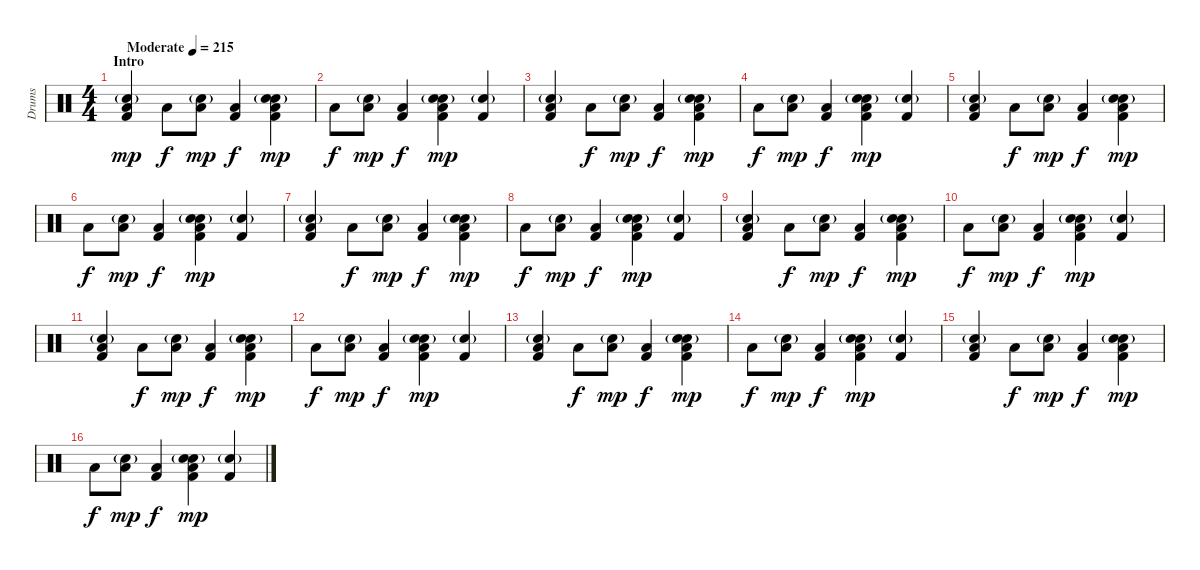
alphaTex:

\track ("Drums" "Drums") {instrument percussion}
\staff {score}
\articulation defaults
\ts (4 4)
\section ("" "Intro")
\tempo (215 "Moderate")
\clef neutral
\ks c
("Electric Snare (hit)"{g} "Low Floor Tom (hit)" "Kick (hit) 2").4{dy mp} "Low Floor Tom (hit)".8{dy f} ("Electric Snare (hit)"{g} "Low Floor Tom (hit)").8{dy mp} ("Low Floor Tom (hit)" "Kick (hit) 2").4{dy f} ("Electric Snare (hit)" "Kick (hit) 2" "Low Floor Tom (hit)" "Snare (hit) 2"{g}).4{dy mp} |
"Low Floor Tom (hit)".8{dy f} ("Electric Snare (hit)"{g} "Low Floor Tom (hit)").8{dy mp} ("Low Floor Tom (hit)" "Kick (hit) 2").4{dy f} ("Snare (hit) 2"{g} "Electric Snare (hit)" "Kick (hit) 2" "Low Floor Tom (hit)").4{dy mp} ("Electric Snare (hit)"{g} "Kick (hit) 2").4 |
("Electric Snare (hit)"{g} "Low Floor Tom (hit)" "Kick (hit) 2").4 "Low Floor Tom (hit)".8{dy f} ("Electric Snare (hit)"{g} "Low Floor Tom (hit)").8{dy mp} ("Low Floor Tom (hit)" "Kick (hit) 2").4{dy f} ("Electric Snare (hit)" "Kick (hit) 2" "Low Floor Tom (hit)" "Snare (hit) 2"{g}).4{dy mp} |
"Low Floor Tom (hit)".8{dy f} ("Electric Snare (hit)"{g} "Low Floor Tom (hit)").8{dy mp} ("Low Floor Tom (hit)" "Kick (hit) 2").4{dy f} ("Snare (hit) 2"{g} "Electric Snare (hit)" "Kick (hit) 2" "Low Floor Tom (hit)").4{dy mp} ("Electric Snare (hit)"{g} "Kick (hit) 2").4 |
("Electric Snare (hit)"{g} "Low Floor Tom (hit)" "Kick (hit) 2").4 "Low Floor Tom (hit)".8{dy f} ("Electric Snare (hit)"{g} "Low Floor Tom (hit)").8{dy mp} ("Low Floor Tom (hit)" "Kick (hit) 2").4{dy f} ("Electric Snare (hit)" "Kick (hit) 2" "Low Floor Tom (hit)" "Snare (hit) 2"{g}).4{dy mp} |
"Low Floor Tom (hit)".8{dy f} ("Electric Snare (hit)"{g} "Low Floor Tom (hit)").8{dy mp} ("Low Floor Tom (hit)" "Kick (hit) 2").4{dy f} ("Snare (hit) 2"{g} "Electric Snare (hit)" "Kick (hit) 2" "Low Floor Tom (hit)").4{dy mp} ("Electric Snare (hit)"{g} "Kick (hit) 2").4 |
("Electric Snare (hit)"{g} "Low Floor Tom (hit)" "Kick (hit) 2").4 "Low Floor Tom (hit)".8{dy f} ("Electric Snare (hit)"{g} "Low Floor Tom (hit)").8{dy mp} ("Low Floor Tom (hit)" "Kick (hit) 2").4{dy f} ("Electric Snare (hit)" "Kick (hit) 2" "Low Floor Tom (hit)" "Snare (hit) 2"{g}).4{dy mp} |
"Low Floor Tom (hit)".8{dy f} ("Electric Snare (hit)"{g} "Low Floor Tom (hit)").8{dy mp} ("Low Floor Tom (hit)" "Kick (hit) 2").4{dy f} ("Snare (hit) 2"{g} "Electric Snare (hit)" "Kick (hit) 2" "Low Floor Tom (hit)").4{dy mp} ("Electric Snare (hit)"{g} "Kick (hit) 2").4 |
("Electric Snare (hit)"{g} "Low Floor Tom (hit)" "Kick (hit) 2").4 "Low Floor Tom (hit)".8{dy f} ("Electric Snare (hit)"{g} "Low Floor Tom (hit)").8{dy mp} ("Low Floor Tom (hit)" "Kick (hit) 2").4{dy f} ("Electric Snare (hit)" "Kick (hit) 2" "Low Floor Tom (hit)" "Snare (hit) 2"{g}).4{dy mp} |
"Low Floor Tom (hit)".8{dy f} ("Electric Snare (hit)"{g} "Low Floor Tom (hit)").8{dy mp} ("Low Floor Tom (hit)" "Kick (hit) 2").4{dy f} ("Snare (hit) 2"{g} "Electric Snare (hit)" "Kick (hit) 2" "Low Floor Tom (hit)").4{dy mp} ("Electric Snare (hit)"{g} "Kick (hit) 2").4 |
("Electric Snare (hit)"{g} "Low Floor Tom (hit)" "Kick (hit) 2").4 "Low Floor Tom (hit)".8{dy f} ("Electric Snare (hit)"{g} "Low Floor Tom (hit)").8{dy mp} ("Low Floor Tom (hit)" "Kick (hit) 2").4{dy f} ("Electric Snare (hit)" "Kick (hit) 2" "Low Floor Tom (hit)" "Snare (hit) 2"{g}).4{dy mp} |
"Low Floor Tom (hit)".8{dy f} ("Electric Snare (hit)"{g} "Low Floor Tom (hit)").8{dy mp} ("Low Floor Tom (hit)" "Kick (hit) 2").4{dy f} ("Snare (hit) 2"{g} "Electric Snare (hit)" "Kick (hit) 2" "Low Floor Tom (hit)").4{dy mp} ("Electric Snare (hit)"{g} "Kick (hit) 2").4 |
("Electric Snare (hit)"{g} "Low Floor Tom (hit)" "Kick (hit) 2").4 "Low Floor Tom (hit)".8{dy f} ("Electric Snare (hit)"{g} "Low Floor Tom (hit)").8{dy mp} ("Low Floor Tom (hit)" "Kick (hit) 2").4{dy f} ("Electric Snare (hit)" "Kick (hit) 2" "Low Floor Tom (hit)" "Snare (hit) 2"{g}).4{dy mp} |
"Low Floor Tom (hit)".8{dy f} ("Electric Snare (hit)"{g} "Low Floor Tom (hit)").8{dy mp} ("Low Floor Tom (hit)" "Kick (hit) 2").4{dy f} ("Snare (hit) 2"{g} "Electric Snare (hit)" "Kick (hit) 2" "Low Floor Tom (hit)").4{dy mp} ("Electric Snare (hit)"{g} "Kick (hit) 2").4 |
("Electric Snare (hit)"{g} "Low Floor Tom (hit)" "Kick (hit) 2").4 "Low Floor Tom (hit)".8{dy f} ("Electric Snare (hit)"{g} "Low Floor Tom (hit)").8{dy mp} ("Low Floor Tom (hit)" "Kick (hit) 2").4{dy f} ("Electric Snare (hit)" "Kick (hit) 2" "Low Floor Tom (hit)" "Snare (hit) 2"{g}).4{dy mp} |
"Low Floor Tom (hit)".8{dy f} ("Electric Snare (hit)"{g} "Low Floor Tom (hit)").8{dy mp} ("Low Floor Tom (hit)" "Kick (hit) 2").4{dy f} ("Snare (hit) 2"{g} "Electric Snare (hit)" "Kick (hit) 2" "Low Floor Tom (hit)").4{dy mp} ("Electric Snare (hit)"{g} "Kick (hit) 2").4
